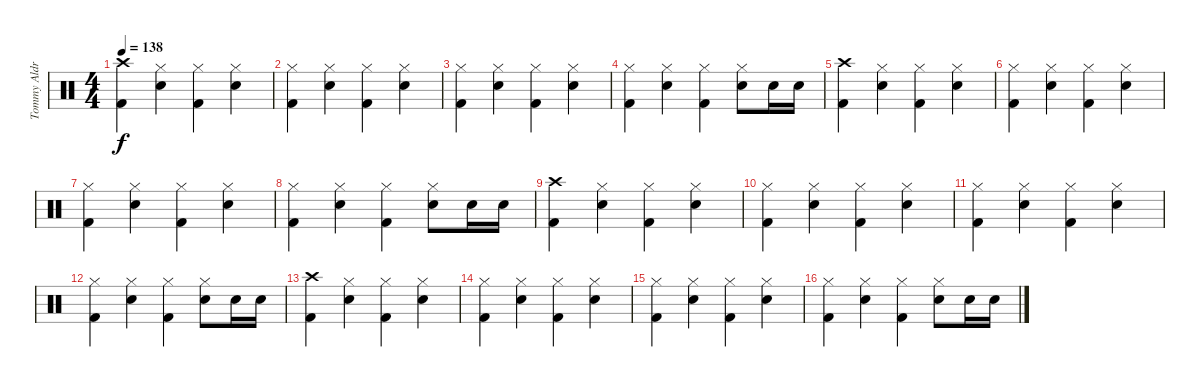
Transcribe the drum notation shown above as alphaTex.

\track ("Tommy Aldridge" "Tommy Aldr") {instrument percussion}
\staff {score}
\articulation defaults
\ts (4 4)
\tempo 138
\clef neutral
\ks c
("Crash high (hit)" "Kick (hit) 2").4{dy f} ("Snare (hit) 2" "Hi-Hat (closed)").4 ("Hi-Hat (closed)" "Kick (hit) 2").4 ("Snare (hit) 2" "Hi-Hat (closed)").4 |
("Hi-Hat (closed)" "Kick (hit) 2").4 ("Snare (hit) 2" "Hi-Hat (closed)").4 ("Hi-Hat (closed)" "Kick (hit) 2").4 ("Snare (hit) 2" "Hi-Hat (closed)").4 |
("Hi-Hat (closed)" "Kick (hit) 2").4 ("Snare (hit) 2" "Hi-Hat (closed)").4 ("Hi-Hat (closed)" "Kick (hit) 2").4 ("Snare (hit) 2" "Hi-Hat (closed)").4 |
("Hi-Hat (closed)" "Kick (hit) 2").4 ("Snare (hit) 2" "Hi-Hat (closed)").4 ("Hi-Hat (closed)" "Kick (hit) 2").4 ("Snare (hit) 2" "Hi-Hat (closed)").8 "Snare (hit) 2".16 "Snare (hit) 2".16 |
("Crash high (hit)" "Kick (hit) 2").4 ("Snare (hit) 2" "Hi-Hat (closed)").4 ("Hi-Hat (closed)" "Kick (hit) 2").4 ("Snare (hit) 2" "Hi-Hat (closed)").4 |
("Hi-Hat (closed)" "Kick (hit) 2").4 ("Snare (hit) 2" "Hi-Hat (closed)").4 ("Hi-Hat (closed)" "Kick (hit) 2").4 ("Snare (hit) 2" "Hi-Hat (closed)").4 |
("Hi-Hat (closed)" "Kick (hit) 2").4 ("Snare (hit) 2" "Hi-Hat (closed)").4 ("Hi-Hat (closed)" "Kick (hit) 2").4 ("Snare (hit) 2" "Hi-Hat (closed)").4 |
("Hi-Hat (closed)" "Kick (hit) 2").4 ("Snare (hit) 2" "Hi-Hat (closed)").4 ("Hi-Hat (closed)" "Kick (hit) 2").4 ("Snare (hit) 2" "Hi-Hat (closed)").8 "Snare (hit) 2".16 "Snare (hit) 2".16 |
("Crash high (hit)" "Kick (hit) 2").4 ("Snare (hit) 2" "Hi-Hat (closed)").4 ("Hi-Hat (closed)" "Kick (hit) 2").4 ("Snare (hit) 2" "Hi-Hat (closed)").4 |
("Hi-Hat (closed)" "Kick (hit) 2").4 ("Snare (hit) 2" "Hi-Hat (closed)").4 ("Hi-Hat (closed)" "Kick (hit) 2").4 ("Snare (hit) 2" "Hi-Hat (closed)").4 |
("Hi-Hat (closed)" "Kick (hit) 2").4 ("Snare (hit) 2" "Hi-Hat (closed)").4 ("Hi-Hat (closed)" "Kick (hit) 2").4 ("Snare (hit) 2" "Hi-Hat (closed)").4 |
("Hi-Hat (closed)" "Kick (hit) 2").4 ("Snare (hit) 2" "Hi-Hat (closed)").4 ("Hi-Hat (closed)" "Kick (hit) 2").4 ("Snare (hit) 2" "Hi-Hat (closed)").8 "Snare (hit) 2".16 "Snare (hit) 2".16 |
("Crash high (hit)" "Kick (hit) 2").4 ("Snare (hit) 2" "Hi-Hat (closed)").4 ("Hi-Hat (closed)" "Kick (hit) 2").4 ("Snare (hit) 2" "Hi-Hat (closed)").4 |
("Hi-Hat (closed)" "Kick (hit) 2").4 ("Snare (hit) 2" "Hi-Hat (closed)").4 ("Hi-Hat (closed)" "Kick (hit) 2").4 ("Snare (hit) 2" "Hi-Hat (closed)").4 |
("Hi-Hat (closed)" "Kick (hit) 2").4 ("Snare (hit) 2" "Hi-Hat (closed)").4 ("Hi-Hat (closed)" "Kick (hit) 2").4 ("Snare (hit) 2" "Hi-Hat (closed)").4 |
("Hi-Hat (closed)" "Kick (hit) 2").4 ("Snare (hit) 2" "Hi-Hat (closed)").4 ("Hi-Hat (closed)" "Kick (hit) 2").4 ("Snare (hit) 2" "Hi-Hat (closed)").8 "Snare (hit) 2".16 "Snare (hit) 2".16
